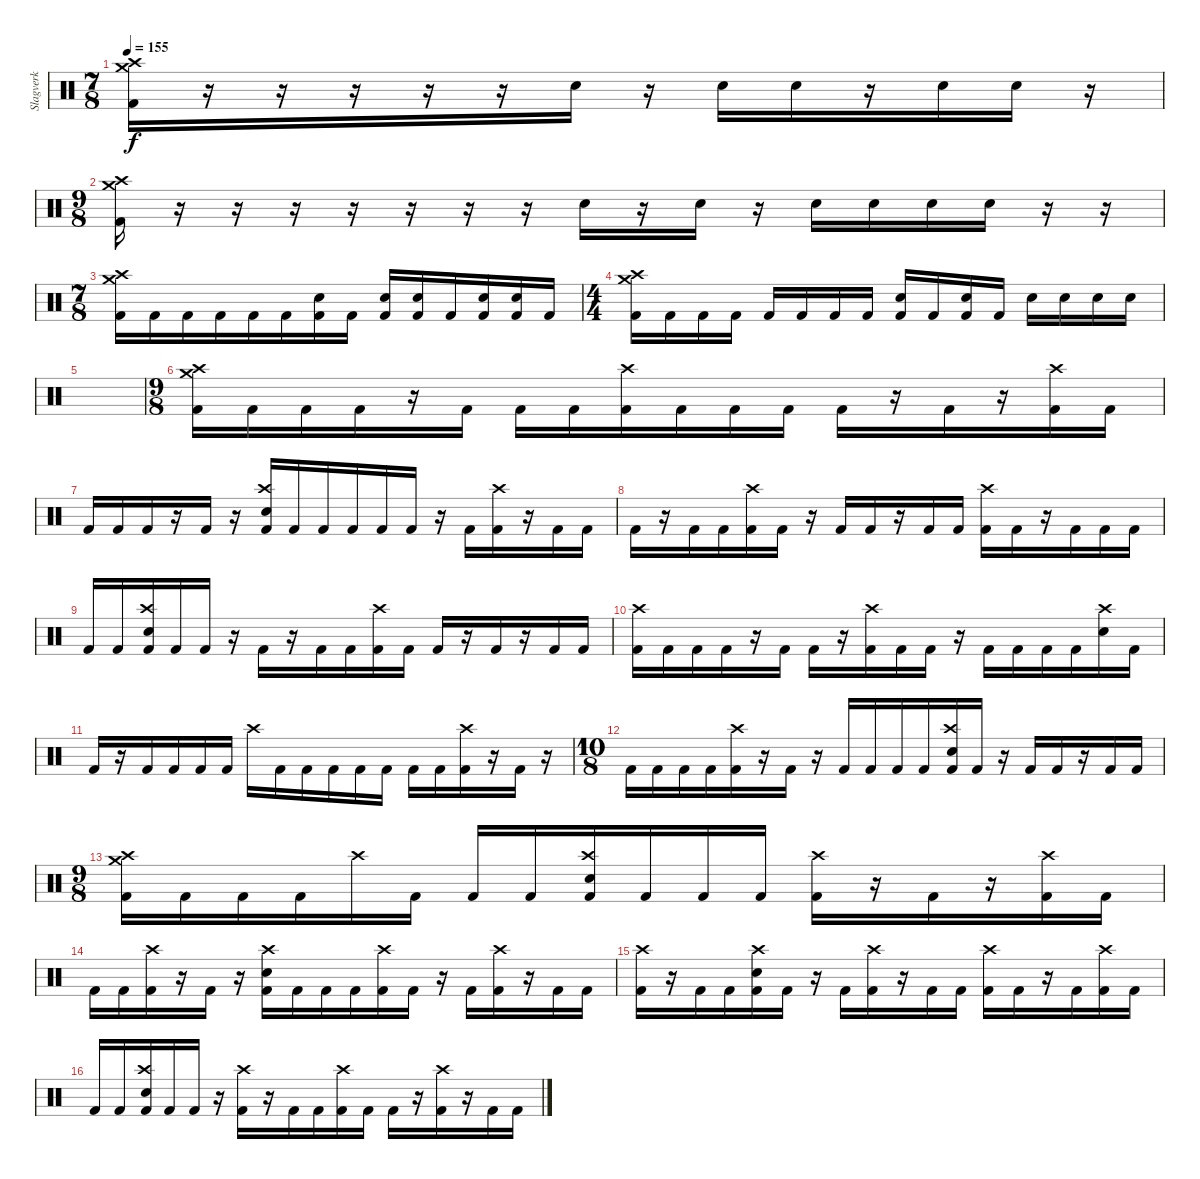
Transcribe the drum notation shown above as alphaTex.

\track ("Slagverk" "Slagverk") {instrument percussion}
\staff {score}
\articulation defaults
\ts (7 8)
\tempo 155
\clef neutral
\ks c
("Kick (hit) 2" "Crash medium (hit)" "Crash high (hit)").16{dy f} r.16 r.16 r.16 r.16 r.16 "Electric Snare (hit)".16 r.16 "Electric Snare (hit)".16 "Electric Snare (hit)".16 r.16 "Electric Snare (hit)".16 "Electric Snare (hit)".16 r.16 |
\ts (9 8)
("Kick (hit) 2" "Crash medium (hit)" "Crash high (hit)").16 r.16 r.16 r.16 r.16 r.16 r.16 r.16 "Electric Snare (hit)".16 r.16 "Electric Snare (hit)".16 r.16 "Electric Snare (hit)".16 "Electric Snare (hit)".16 "Electric Snare (hit)".16 "Electric Snare (hit)".16 r.16 r.16 |
\ts (7 8)
("Kick (hit) 2" "Crash medium (hit)" "Crash high (hit)").16 "Kick (hit) 2".16 "Kick (hit) 2".16 "Kick (hit) 2".16 "Kick (hit) 2".16 "Kick (hit) 2".16 ("Kick (hit) 2" "Electric Snare (hit)").16 "Kick (hit) 2".16 ("Kick (hit) 2" "Electric Snare (hit)").16 ("Kick (hit) 2" "Electric Snare (hit)").16 "Kick (hit) 2".16 ("Kick (hit) 2" "Electric Snare (hit)").16 ("Kick (hit) 2" "Electric Snare (hit)").16 "Kick (hit) 2".16 |
\ts (4 4)
("Kick (hit) 2" "Crash medium (hit)" "Crash high (hit)").16 "Kick (hit) 2".16 "Kick (hit) 2".16 "Kick (hit) 2".16 "Kick (hit) 2".16 "Kick (hit) 2".16 "Kick (hit) 2".16 "Kick (hit) 2".16 ("Kick (hit) 2" "Electric Snare (hit)").16 "Kick (hit) 2".16 ("Kick (hit) 2" "Electric Snare (hit)").16 "Kick (hit) 2".16 "Electric Snare (hit)".16 "Electric Snare (hit)".16 "Electric Snare (hit)".16 "Electric Snare (hit)".16 |
|
\ts (9 8)
("Kick (hit) 2" "Crash high (hit)" "Crash medium (hit)").16 "Kick (hit) 2".16 "Kick (hit) 2".16 "Kick (hit) 2".16 r.16 "Kick (hit) 2".16 "Kick (hit) 2".16 "Kick (hit) 2".16 ("Kick (hit) 2" "Crash high (hit)").16 "Kick (hit) 2".16 "Kick (hit) 2".16 "Kick (hit) 2".16 "Kick (hit) 2".16 r.16 "Kick (hit) 2".16 r.16 ("Kick (hit) 2" "Crash high (hit)").16 "Kick (hit) 2".16 |
"Kick (hit) 2".16 "Kick (hit) 2".16 "Kick (hit) 2".16 r.16 "Kick (hit) 2".16 r.16 ("Kick (hit) 2" "Electric Snare (hit)" "Crash high (hit)").16 "Kick (hit) 2".16 "Kick (hit) 2".16 "Kick (hit) 2".16 "Kick (hit) 2".16 "Kick (hit) 2".16 r.16 "Kick (hit) 2".16 ("Kick (hit) 2" "Crash high (hit)").16 r.16 "Kick (hit) 2".16 "Kick (hit) 2".16 |
"Kick (hit) 2".16 r.16 "Kick (hit) 2".16 "Kick (hit) 2".16 ("Kick (hit) 2" "Crash high (hit)").16 "Kick (hit) 2".16 r.16 "Kick (hit) 2".16 "Kick (hit) 2".16 r.16 "Kick (hit) 2".16 "Kick (hit) 2".16 ("Kick (hit) 2" "Crash high (hit)").16 "Kick (hit) 2".16 r.16 "Kick (hit) 2".16 "Kick (hit) 2".16 "Kick (hit) 2".16 |
"Kick (hit) 2".16 "Kick (hit) 2".16 ("Kick (hit) 2" "Electric Snare (hit)" "Crash high (hit)").16 "Kick (hit) 2".16 "Kick (hit) 2".16 r.16 "Kick (hit) 2".16 r.16 "Kick (hit) 2".16 "Kick (hit) 2".16 ("Kick (hit) 2" "Crash high (hit)").16 "Kick (hit) 2".16 "Kick (hit) 2".16 r.16 "Kick (hit) 2".16 r.16 "Kick (hit) 2".16 "Kick (hit) 2".16 |
("Kick (hit) 2" "Crash high (hit)").16 "Kick (hit) 2".16 "Kick (hit) 2".16 "Kick (hit) 2".16 r.16 "Kick (hit) 2".16 "Kick (hit) 2".16 r.16 ("Kick (hit) 2" "Crash high (hit)").16 "Kick (hit) 2".16 "Kick (hit) 2".16 r.16 "Kick (hit) 2".16 "Kick (hit) 2".16 "Kick (hit) 2".16 "Kick (hit) 2".16 ("Electric Snare (hit)" "Crash high (hit)").16 "Kick (hit) 2".16 |
"Kick (hit) 2".16 r.16 "Kick (hit) 2".16 "Kick (hit) 2".16 "Kick (hit) 2".16 "Kick (hit) 2".16 "Crash high (hit)".16 "Kick (hit) 2".16 "Kick (hit) 2".16 "Kick (hit) 2".16 "Kick (hit) 2".16 "Kick (hit) 2".16 "Kick (hit) 2".16 "Kick (hit) 2".16 ("Kick (hit) 2" "Crash high (hit)").16 r.16 "Kick (hit) 2".16 r.16 |
\ts (10 8)
"Kick (hit) 2".16 "Kick (hit) 2".16 "Kick (hit) 2".16 "Kick (hit) 2".16 ("Kick (hit) 2" "Crash high (hit)").16 r.16 "Kick (hit) 2".16 r.16 "Kick (hit) 2".16 "Kick (hit) 2".16 "Kick (hit) 2".16 "Kick (hit) 2".16 ("Kick (hit) 2" "Electric Snare (hit)" "Crash high (hit)").16 "Kick (hit) 2".16 r.16 "Kick (hit) 2".16 "Kick (hit) 2".16 r.16 "Kick (hit) 2".16 "Kick (hit) 2".16 |
\ts (9 8)
("Kick (hit) 2" "Crash high (hit)" "Crash medium (hit)").16 "Kick (hit) 2".16 "Kick (hit) 2".16 "Kick (hit) 2".16 "Crash high (hit)".16 "Kick (hit) 2".16 "Kick (hit) 2".16 "Kick (hit) 2".16 ("Kick (hit) 2" "Electric Snare (hit)" "Crash high (hit)").16 "Kick (hit) 2".16 "Kick (hit) 2".16 "Kick (hit) 2".16 ("Kick (hit) 2" "Crash high (hit)").16 r.16 "Kick (hit) 2".16 r.16 ("Kick (hit) 2" "Crash high (hit)").16 "Kick (hit) 2".16 |
"Kick (hit) 2".16 "Kick (hit) 2".16 ("Kick (hit) 2" "Crash high (hit)").16 r.16 "Kick (hit) 2".16 r.16 ("Kick (hit) 2" "Electric Snare (hit)" "Crash high (hit)").16 "Kick (hit) 2".16 "Kick (hit) 2".16 "Kick (hit) 2".16 ("Kick (hit) 2" "Crash high (hit)").16 "Kick (hit) 2".16 r.16 "Kick (hit) 2".16 ("Kick (hit) 2" "Crash high (hit)").16 r.16 "Kick (hit) 2".16 "Kick (hit) 2".16 |
("Kick (hit) 2" "Crash high (hit)").16 r.16 "Kick (hit) 2".16 "Kick (hit) 2".16 ("Kick (hit) 2" "Electric Snare (hit)" "Crash high (hit)").16 "Kick (hit) 2".16 r.16 "Kick (hit) 2".16 ("Kick (hit) 2" "Crash high (hit)").16 r.16 "Kick (hit) 2".16 "Kick (hit) 2".16 ("Kick (hit) 2" "Crash high (hit)").16 "Kick (hit) 2".16 r.16 "Kick (hit) 2".16 ("Kick (hit) 2" "Crash high (hit)").16 "Kick (hit) 2".16 |
"Kick (hit) 2".16 "Kick (hit) 2".16 ("Kick (hit) 2" "Electric Snare (hit)" "Crash high (hit)").16 "Kick (hit) 2".16 "Kick (hit) 2".16 r.16 ("Kick (hit) 2" "Crash high (hit)").16 r.16 "Kick (hit) 2".16 "Kick (hit) 2".16 ("Kick (hit) 2" "Crash high (hit)").16 "Kick (hit) 2".16 "Kick (hit) 2".16 r.16 ("Kick (hit) 2" "Crash high (hit)").16 r.16 "Kick (hit) 2".16 "Kick (hit) 2".16
